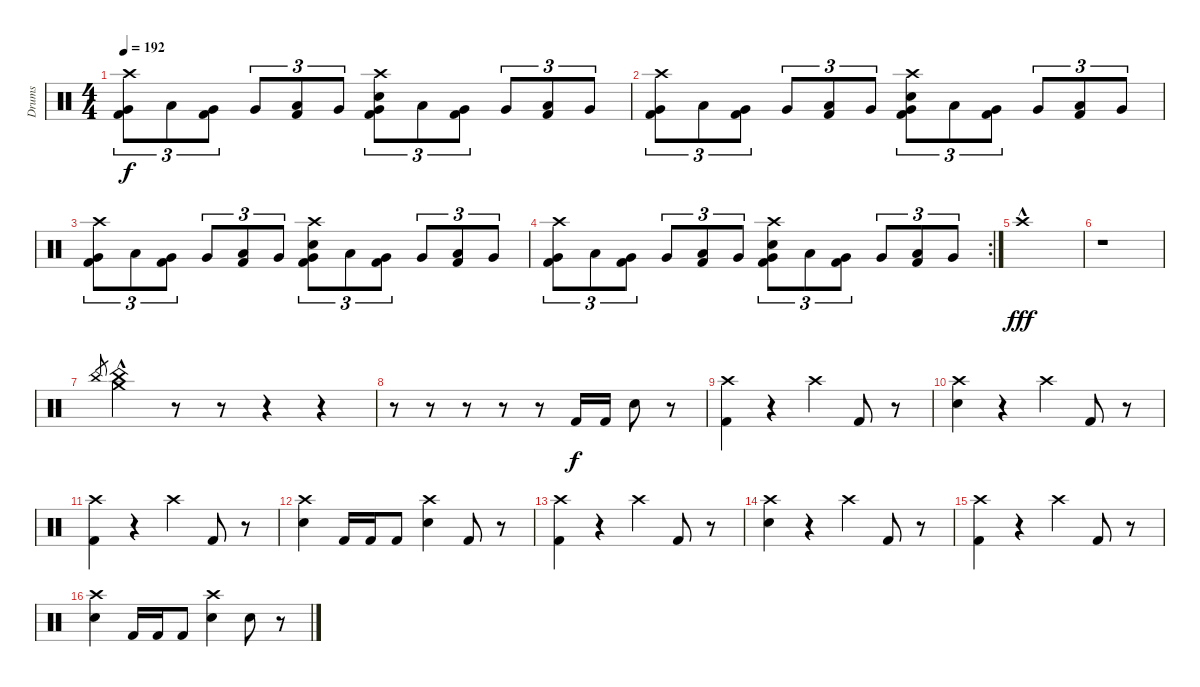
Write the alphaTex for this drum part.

\track ("Drums" "Drums") {instrument percussion}
\staff {score}
\articulation defaults
\ts (4 4)
\tempo 192
\clef neutral
\ks c
("Crash high (hit)" "Kick (hit) 2" "Very Low Tom (hit)").8{tu (3 2) dy f} "Low Tom (hit)".8{tu (3 2)} ("Kick (hit) 2" "Very Low Tom (hit)").8{tu (3 2)} "Very Low Tom (hit)".8{tu (3 2)} ("Kick (hit) 2" "Low Tom (hit)").8{tu (3 2)} "Very Low Tom (hit)".8{tu (3 2)} ("Crash high (hit)" "Electric Snare (hit)" "Kick (hit) 2" "Very Low Tom (hit)").8{tu (3 2)} "Low Tom (hit)".8{tu (3 2)} ("Kick (hit) 2" "Very Low Tom (hit)").8{tu (3 2)} "Very Low Tom (hit)".8{tu (3 2)} ("Kick (hit) 2" "Low Tom (hit)").8{tu (3 2)} "Very Low Tom (hit)".8{tu (3 2)} |
("Crash high (hit)" "Kick (hit) 2" "Very Low Tom (hit)").8{tu (3 2)} "Low Tom (hit)".8{tu (3 2)} ("Kick (hit) 2" "Very Low Tom (hit)").8{tu (3 2)} "Very Low Tom (hit)".8{tu (3 2)} ("Kick (hit) 2" "Low Tom (hit)").8{tu (3 2)} "Very Low Tom (hit)".8{tu (3 2)} ("Crash high (hit)" "Electric Snare (hit)" "Kick (hit) 2" "Very Low Tom (hit)").8{tu (3 2)} "Low Tom (hit)".8{tu (3 2)} ("Kick (hit) 2" "Very Low Tom (hit)").8{tu (3 2)} "Very Low Tom (hit)".8{tu (3 2)} ("Kick (hit) 2" "Low Tom (hit)").8{tu (3 2)} "Very Low Tom (hit)".8{tu (3 2)} |
("Crash high (hit)" "Kick (hit) 2" "Very Low Tom (hit)").8{tu (3 2)} "Low Tom (hit)".8{tu (3 2)} ("Kick (hit) 2" "Very Low Tom (hit)").8{tu (3 2)} "Very Low Tom (hit)".8{tu (3 2)} ("Kick (hit) 2" "Low Tom (hit)").8{tu (3 2)} "Very Low Tom (hit)".8{tu (3 2)} ("Crash high (hit)" "Electric Snare (hit)" "Kick (hit) 2" "Very Low Tom (hit)").8{tu (3 2)} "Low Tom (hit)".8{tu (3 2)} ("Kick (hit) 2" "Very Low Tom (hit)").8{tu (3 2)} "Very Low Tom (hit)".8{tu (3 2)} ("Kick (hit) 2" "Low Tom (hit)").8{tu (3 2)} "Very Low Tom (hit)".8{tu (3 2)} |
\rc 2
("Crash high (hit)" "Kick (hit) 2" "Very Low Tom (hit)").8{tu (3 2)} "Low Tom (hit)".8{tu (3 2)} ("Kick (hit) 2" "Very Low Tom (hit)").8{tu (3 2)} "Very Low Tom (hit)".8{tu (3 2)} ("Kick (hit) 2" "Low Tom (hit)").8{tu (3 2)} "Very Low Tom (hit)".8{tu (3 2)} ("Crash high (hit)" "Electric Snare (hit)" "Kick (hit) 2" "Very Low Tom (hit)").8{tu (3 2)} "Low Tom (hit)".8{tu (3 2)} ("Kick (hit) 2" "Very Low Tom (hit)").8{tu (3 2)} "Very Low Tom (hit)".8{tu (3 2)} ("Kick (hit) 2" "Low Tom (hit)").8{tu (3 2)} "Very Low Tom (hit)".8{tu (3 2)} |
"Crash high (hit)"{hac}.1{dy fff} |
r.1 |
"China (hit)".8{gr} ("Crash medium (hit)" "China (hit)"{hac}).4 r.8 r.8 r.4 r.4 |
r.8 r.8 r.8 r.8 r.8 "Kick (hit) 2".16{dy f} "Kick (hit) 2".16 "Electric Snare (hit)".8 r.8 |
("Crash high (hit)" "Kick (hit) 2").4 r.4 "Crash high (hit)".4 "Kick (hit) 2".8 r.8 |
("Crash high (hit)" "Electric Snare (hit)").4 r.4 "Crash high (hit)".4 "Kick (hit) 2".8 r.8 |
("Crash high (hit)" "Kick (hit) 2").4 r.4 "Crash high (hit)".4 "Kick (hit) 2".8 r.8 |
("Crash high (hit)" "Electric Snare (hit)").4 "Kick (hit) 2".16 "Kick (hit) 2".16 "Kick (hit) 2".8 ("Crash high (hit)" "Electric Snare (hit)").4 "Kick (hit) 2".8 r.8 |
("Crash high (hit)" "Kick (hit) 2").4 r.4 "Crash high (hit)".4 "Kick (hit) 2".8 r.8 |
("Crash high (hit)" "Electric Snare (hit)").4 r.4 "Crash high (hit)".4 "Kick (hit) 2".8 r.8 |
("Crash high (hit)" "Kick (hit) 2").4 r.4 "Crash high (hit)".4 "Kick (hit) 2".8 r.8 |
("Crash high (hit)" "Electric Snare (hit)").4 "Kick (hit) 2".16 "Kick (hit) 2".16 "Kick (hit) 2".8 ("Crash high (hit)" "Electric Snare (hit)").4 "Electric Snare (hit)".8 r.8
